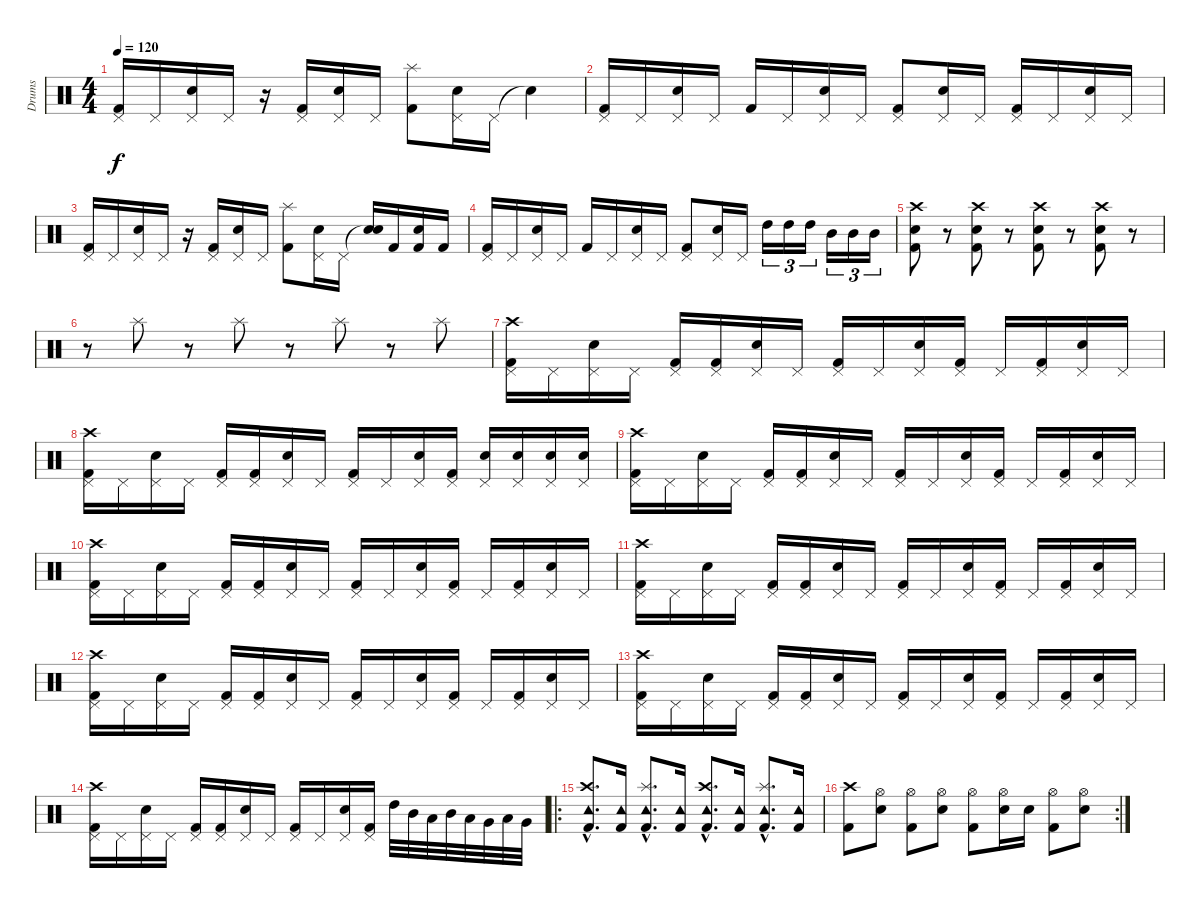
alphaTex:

\track ("Drums" "Drums") {instrument percussion}
\staff {score}
\articulation defaults
\ts (4 4)
\tempo 120
\clef neutral
\ks c
("Pedal Hi-Hat (hit)" "Kick (hit) 2").16{dy f} "Pedal Hi-Hat (hit)".16 ("Pedal Hi-Hat (hit)" "Electric Snare (hit)").16 "Pedal Hi-Hat (hit)".16 r.16 ("Pedal Hi-Hat (hit)" "Kick (hit) 2").16 ("Pedal Hi-Hat (hit)" "Electric Snare (hit)").16 "Pedal Hi-Hat (hit)".16 ("Splash (hit)" "Kick (hit) 2").8 ("Pedal Hi-Hat (hit)" "Electric Snare (hit)").16 "Pedal Hi-Hat (hit)".16 "Snare (hit)"{t}.4 |
("Pedal Hi-Hat (hit)" "Kick (hit) 2").16 "Pedal Hi-Hat (hit)".16 ("Pedal Hi-Hat (hit)" "Electric Snare (hit)").16 "Pedal Hi-Hat (hit)".16 "Kick (hit) 2".16 "Pedal Hi-Hat (hit)".16 ("Pedal Hi-Hat (hit)" "Electric Snare (hit)").16 "Pedal Hi-Hat (hit)".16 ("Pedal Hi-Hat (hit)" "Kick (hit) 2").8 ("Pedal Hi-Hat (hit)" "Electric Snare (hit)").16 "Pedal Hi-Hat (hit)".16 ("Pedal Hi-Hat (hit)" "Kick (hit) 2").16 "Pedal Hi-Hat (hit)".16 ("Pedal Hi-Hat (hit)" "Electric Snare (hit)").16 "Pedal Hi-Hat (hit)".16 |
("Pedal Hi-Hat (hit)" "Kick (hit) 2").16 "Pedal Hi-Hat (hit)".16 ("Pedal Hi-Hat (hit)" "Electric Snare (hit)").16 "Pedal Hi-Hat (hit)".16 r.16 ("Pedal Hi-Hat (hit)" "Kick (hit) 2").16 ("Pedal Hi-Hat (hit)" "Electric Snare (hit)").16 "Pedal Hi-Hat (hit)".16 ("Splash (hit)" "Kick (hit) 2").8 ("Pedal Hi-Hat (hit)" "Electric Snare (hit)").16 "Pedal Hi-Hat (hit)".16 ("Snare (hit)"{t} "Snare (hit)").16 "Kick (hit) 2".16 ("Electric Snare (hit)" "Kick (hit) 2").16 "Kick (hit) 2".16 |
("Pedal Hi-Hat (hit)" "Kick (hit) 2").16 "Pedal Hi-Hat (hit)".16 ("Pedal Hi-Hat (hit)" "Electric Snare (hit)").16 "Pedal Hi-Hat (hit)".16 "Kick (hit) 2".16 "Pedal Hi-Hat (hit)".16 ("Pedal Hi-Hat (hit)" "Electric Snare (hit)").16 "Pedal Hi-Hat (hit)".16 ("Pedal Hi-Hat (hit)" "Kick (hit) 2").8 ("Pedal Hi-Hat (hit)" "Electric Snare (hit)").16 "Pedal Hi-Hat (hit)".16 "High Tom (hit)".16{tu (3 2)} "High Tom (hit)".16{tu (3 2)} "High Tom (hit)".16{tu (3 2)} "Mid Tom (hit)".16{tu (3 2)} "Mid Tom (hit)".16{tu (3 2)} "Mid Tom (hit)".16{tu (3 2)} |
("Electric Snare (hit)" "Kick (hit) 2" "Crash high (hit)").8 r.8 ("Electric Snare (hit)" "Kick (hit) 2" "Crash high (hit)").8 r.8 ("Electric Snare (hit)" "Kick (hit) 2" "Crash high (hit)").8 r.8 ("Electric Snare (hit)" "Kick (hit) 2" "Crash high (hit)").8 r.8 |
r.8 "Splash (hit)".8 r.8 "Splash (hit)".8 r.8 "Splash (hit)".8 r.8 "Splash (hit)".8 |
("Crash high (hit)" "Pedal Hi-Hat (hit)" "Kick (hit) 2").16 "Pedal Hi-Hat (hit)".16 ("Pedal Hi-Hat (hit)" "Electric Snare (hit)").16 "Pedal Hi-Hat (hit)".16 ("Pedal Hi-Hat (hit)" "Kick (hit) 2").16 ("Pedal Hi-Hat (hit)" "Kick (hit) 2").16 ("Pedal Hi-Hat (hit)" "Electric Snare (hit)").16 "Pedal Hi-Hat (hit)".16 ("Pedal Hi-Hat (hit)" "Kick (hit) 2").16 "Pedal Hi-Hat (hit)".16 ("Pedal Hi-Hat (hit)" "Electric Snare (hit)").16 ("Pedal Hi-Hat (hit)" "Kick (hit) 2").16 "Pedal Hi-Hat (hit)".16 ("Pedal Hi-Hat (hit)" "Kick (hit) 2").16 ("Pedal Hi-Hat (hit)" "Electric Snare (hit)").16 "Pedal Hi-Hat (hit)".16 |
("Crash high (hit)" "Pedal Hi-Hat (hit)" "Kick (hit) 2").16 "Pedal Hi-Hat (hit)".16 ("Pedal Hi-Hat (hit)" "Electric Snare (hit)").16 "Pedal Hi-Hat (hit)".16 ("Pedal Hi-Hat (hit)" "Kick (hit) 2").16 ("Pedal Hi-Hat (hit)" "Kick (hit) 2").16 ("Pedal Hi-Hat (hit)" "Electric Snare (hit)").16 "Pedal Hi-Hat (hit)".16 ("Pedal Hi-Hat (hit)" "Kick (hit) 2").16 "Pedal Hi-Hat (hit)".16 ("Pedal Hi-Hat (hit)" "Electric Snare (hit)").16 ("Pedal Hi-Hat (hit)" "Kick (hit) 2").16 ("Pedal Hi-Hat (hit)" "Electric Snare (hit)").16 ("Pedal Hi-Hat (hit)" "Electric Snare (hit)").16 ("Pedal Hi-Hat (hit)" "Electric Snare (hit)").16 ("Pedal Hi-Hat (hit)" "Electric Snare (hit)").16 |
("Crash high (hit)" "Pedal Hi-Hat (hit)" "Kick (hit) 2").16 "Pedal Hi-Hat (hit)".16 ("Pedal Hi-Hat (hit)" "Electric Snare (hit)").16 "Pedal Hi-Hat (hit)".16 ("Pedal Hi-Hat (hit)" "Kick (hit) 2").16 ("Pedal Hi-Hat (hit)" "Kick (hit) 2").16 ("Pedal Hi-Hat (hit)" "Electric Snare (hit)").16 "Pedal Hi-Hat (hit)".16 ("Pedal Hi-Hat (hit)" "Kick (hit) 2").16 "Pedal Hi-Hat (hit)".16 ("Pedal Hi-Hat (hit)" "Electric Snare (hit)").16 ("Pedal Hi-Hat (hit)" "Kick (hit) 2").16 "Pedal Hi-Hat (hit)".16 ("Pedal Hi-Hat (hit)" "Kick (hit) 2").16 ("Pedal Hi-Hat (hit)" "Electric Snare (hit)").16 "Pedal Hi-Hat (hit)".16 |
("Crash high (hit)" "Pedal Hi-Hat (hit)" "Kick (hit) 2").16 "Pedal Hi-Hat (hit)".16 ("Pedal Hi-Hat (hit)" "Electric Snare (hit)").16 "Pedal Hi-Hat (hit)".16 ("Pedal Hi-Hat (hit)" "Kick (hit) 2").16 ("Pedal Hi-Hat (hit)" "Kick (hit) 2").16 ("Pedal Hi-Hat (hit)" "Electric Snare (hit)").16 "Pedal Hi-Hat (hit)".16 ("Pedal Hi-Hat (hit)" "Kick (hit) 2").16 "Pedal Hi-Hat (hit)".16 ("Pedal Hi-Hat (hit)" "Electric Snare (hit)").16 ("Pedal Hi-Hat (hit)" "Kick (hit) 2").16 "Pedal Hi-Hat (hit)".16 ("Pedal Hi-Hat (hit)" "Kick (hit) 2").16 ("Pedal Hi-Hat (hit)" "Electric Snare (hit)").16 "Pedal Hi-Hat (hit)".16 |
("Crash high (hit)" "Pedal Hi-Hat (hit)" "Kick (hit) 2").16 "Pedal Hi-Hat (hit)".16 ("Pedal Hi-Hat (hit)" "Electric Snare (hit)").16 "Pedal Hi-Hat (hit)".16 ("Pedal Hi-Hat (hit)" "Kick (hit) 2").16 ("Pedal Hi-Hat (hit)" "Kick (hit) 2").16 ("Pedal Hi-Hat (hit)" "Electric Snare (hit)").16 "Pedal Hi-Hat (hit)".16 ("Pedal Hi-Hat (hit)" "Kick (hit) 2").16 "Pedal Hi-Hat (hit)".16 ("Pedal Hi-Hat (hit)" "Electric Snare (hit)").16 ("Pedal Hi-Hat (hit)" "Kick (hit) 2").16 "Pedal Hi-Hat (hit)".16 ("Pedal Hi-Hat (hit)" "Kick (hit) 2").16 ("Pedal Hi-Hat (hit)" "Electric Snare (hit)").16 "Pedal Hi-Hat (hit)".16 |
("Crash high (hit)" "Pedal Hi-Hat (hit)" "Kick (hit) 2").16 "Pedal Hi-Hat (hit)".16 ("Pedal Hi-Hat (hit)" "Electric Snare (hit)").16 "Pedal Hi-Hat (hit)".16 ("Pedal Hi-Hat (hit)" "Kick (hit) 2").16 ("Pedal Hi-Hat (hit)" "Kick (hit) 2").16 ("Pedal Hi-Hat (hit)" "Electric Snare (hit)").16 "Pedal Hi-Hat (hit)".16 ("Pedal Hi-Hat (hit)" "Kick (hit) 2").16 "Pedal Hi-Hat (hit)".16 ("Pedal Hi-Hat (hit)" "Electric Snare (hit)").16 ("Pedal Hi-Hat (hit)" "Kick (hit) 2").16 "Pedal Hi-Hat (hit)".16 ("Pedal Hi-Hat (hit)" "Kick (hit) 2").16 ("Pedal Hi-Hat (hit)" "Electric Snare (hit)").16 "Pedal Hi-Hat (hit)".16 |
("Crash high (hit)" "Pedal Hi-Hat (hit)" "Kick (hit) 2").16 "Pedal Hi-Hat (hit)".16 ("Pedal Hi-Hat (hit)" "Electric Snare (hit)").16 "Pedal Hi-Hat (hit)".16 ("Pedal Hi-Hat (hit)" "Kick (hit) 2").16 ("Pedal Hi-Hat (hit)" "Kick (hit) 2").16 ("Pedal Hi-Hat (hit)" "Electric Snare (hit)").16 "Pedal Hi-Hat (hit)".16 ("Pedal Hi-Hat (hit)" "Kick (hit) 2").16 "Pedal Hi-Hat (hit)".16 ("Pedal Hi-Hat (hit)" "Electric Snare (hit)").16 ("Pedal Hi-Hat (hit)" "Kick (hit) 2").16 "Pedal Hi-Hat (hit)".16 ("Pedal Hi-Hat (hit)" "Kick (hit) 2").16 ("Pedal Hi-Hat (hit)" "Electric Snare (hit)").16 "Pedal Hi-Hat (hit)".16 |
("Crash high (hit)" "Pedal Hi-Hat (hit)" "Kick (hit) 2").16 "Pedal Hi-Hat (hit)".16 ("Pedal Hi-Hat (hit)" "Electric Snare (hit)").16 "Pedal Hi-Hat (hit)".16 ("Pedal Hi-Hat (hit)" "Kick (hit) 2").16 ("Pedal Hi-Hat (hit)" "Kick (hit) 2").16 ("Pedal Hi-Hat (hit)" "Electric Snare (hit)").16 "Pedal Hi-Hat (hit)".16 ("Pedal Hi-Hat (hit)" "Kick (hit) 2").16 "Pedal Hi-Hat (hit)".16 ("Pedal Hi-Hat (hit)" "Electric Snare (hit)").16 ("Pedal Hi-Hat (hit)" "Kick (hit) 2").16 "High Tom (hit)".32 "Mid Tom (hit)".32 "Low Tom (hit)".32 "Mid Tom (hit)".32 "Low Tom (hit)".32 "Very Low Tom (hit)".32 "Low Tom (hit)".32 "Very Low Tom (hit)".32 |
\ro
("Crash high (hit)"{hac} "Kick (hit) 2"{hac} "Tambourine (hit)"{hac}).8{d} ("Kick (hit) 2" "Tambourine (hit)").16 ("Splash (hit)"{hac} "Kick (hit) 2"{hac} "Tambourine (hit)"{hac}).8{d} ("Kick (hit) 2" "Tambourine (hit)").16 ("Crash high (hit)"{hac} "Kick (hit) 2"{hac} "Tambourine (hit)"{hac}).8{d} ("Kick (hit) 2" "Tambourine (hit)").16 ("Splash (hit)"{hac} "Kick (hit) 2"{hac} "Tambourine (hit)"{hac}).8{d} ("Kick (hit) 2" "Tambourine (hit)").16 |
\rc 2
("Crash high (hit)" "Kick (hit) 2").8 ("Hi-Hat (open)" "Electric Snare (hit)").8 ("Hi-Hat (open)" "Kick (hit) 2").8 ("Hi-Hat (open)" "Electric Snare (hit)").8 ("Hi-Hat (open)" "Kick (hit) 2").8 ("Hi-Hat (open)" "Electric Snare (hit)").16 "Electric Snare (hit)".16 ("Hi-Hat (open)" "Kick (hit) 2").8 ("Hi-Hat (open)" "Electric Snare (hit)").8
